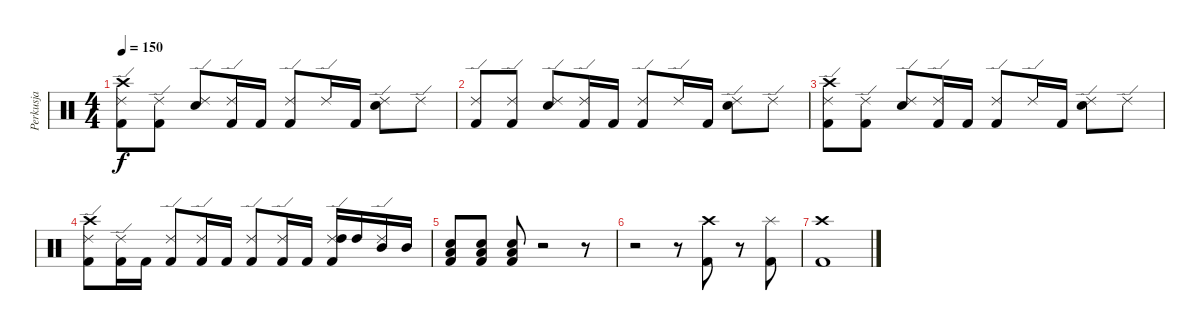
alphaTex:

\track ("Perkusja" "Perkusja") {instrument percussion}
\staff {score}
\articulation defaults
\ts (4 4)
\tempo 150
\clef neutral
\ks c
("Kick (hit) 2" "Ride (edge) 2" "Crash high (hit)").8{dy f} ("Kick (hit) 2" "Ride (edge) 2").8 ("Electric Snare (hit)" "Ride (edge) 2").8 ("Kick (hit) 2" "Ride (edge) 2").16 "Kick (hit) 2".16 ("Kick (hit) 2" "Ride (edge) 2").8 "Ride (edge) 2".16 "Kick (hit) 2".16 ("Electric Snare (hit)" "Ride (edge) 2").8 "Ride (edge) 2".8 |
("Kick (hit) 2" "Ride (edge) 2").8 ("Kick (hit) 2" "Ride (edge) 2").8 ("Electric Snare (hit)" "Ride (edge) 2").8 ("Kick (hit) 2" "Ride (edge) 2").16 "Kick (hit) 2".16 ("Kick (hit) 2" "Ride (edge) 2").8 "Ride (edge) 2".16 "Kick (hit) 2".16 ("Electric Snare (hit)" "Ride (edge) 2").8 "Ride (edge) 2".8 |
("Kick (hit) 2" "Ride (edge) 2" "Crash high (hit)").8 ("Kick (hit) 2" "Ride (edge) 2").8 ("Electric Snare (hit)" "Ride (edge) 2").8 ("Kick (hit) 2" "Ride (edge) 2").16 "Kick (hit) 2".16 ("Kick (hit) 2" "Ride (edge) 2").8 "Ride (edge) 2".16 "Kick (hit) 2".16 ("Electric Snare (hit)" "Ride (edge) 2").8 "Ride (edge) 2".8 |
("Kick (hit) 2" "Ride (edge) 2" "Crash high (hit)").8 ("Kick (hit) 2" "Ride (edge) 2").16 "Kick (hit) 2".16 ("Kick (hit) 2" "Ride (edge) 2").8 ("Kick (hit) 2" "Ride (edge) 2").16 "Kick (hit) 2".16 ("Kick (hit) 2" "Ride (edge) 2").8 ("Kick (hit) 2" "Ride (edge) 2").16 "Kick (hit) 2".16 ("Kick (hit) 2" "Ride (edge) 2" "High Tom (hit)").16 "High Tom (hit)".16 ("Mid Tom (hit)" "Ride (edge) 2").16 "Mid Tom (hit)".16 |
("Kick (hit) 2" "Low Floor Tom (hit)" "Electric Snare (hit)").8 ("Kick (hit) 2" "Low Floor Tom (hit)" "Electric Snare (hit)").8 ("Kick (hit) 2" "Low Floor Tom (hit)" "Electric Snare (hit)").8 r.2 r.8 |
r.2 r.8 ("Kick (hit) 2" "Crash high (hit)").8 r.8 ("Kick (hit) 2" "Splash (hit)").8 |
("Kick (hit) 2" "Crash high (hit)").1
